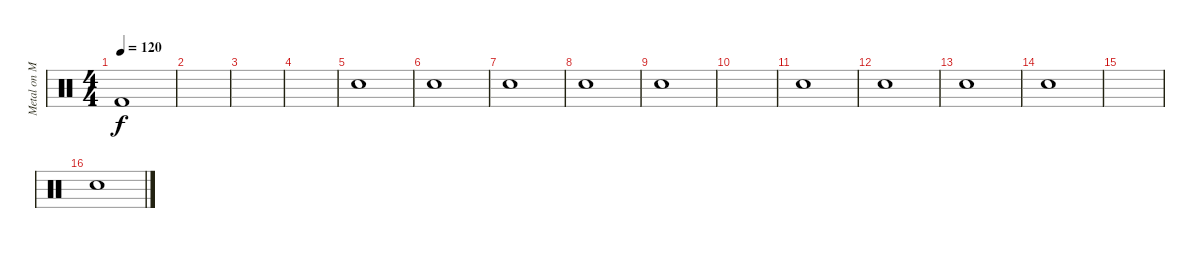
\track ("Metal on Metal" "Metal on M") {instrument percussion}
\staff {score}
\articulation defaults
\ts (4 4)
\tempo 120
\clef neutral
\ks c "Kick (hit) 2".1{dy f}
|
|
|
|
"Snare (hit)".1 |
"Snare (hit)".1 |
"Snare (hit)".1 |
"Snare (hit)".1 |
"Snare (hit)".1 |
|
"Snare (hit)".1 |
"Snare (hit)".1 |
"Snare (hit)".1 |
"Snare (hit)".1 |
|
"Snare (hit)".1
